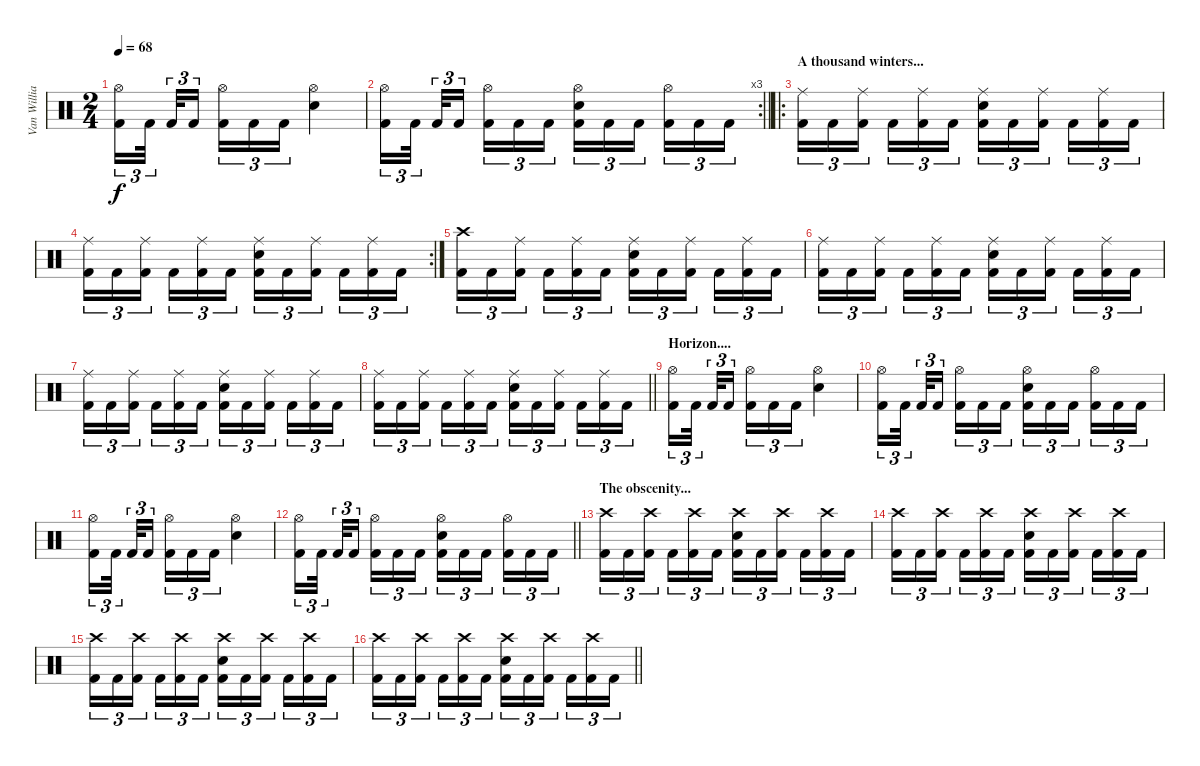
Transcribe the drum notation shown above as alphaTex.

\track ("Van Williams" "Van Willia") {instrument percussion}
\staff
\articulation defaults
\ts (2 4)
\tempo 68
\clef neutral
\ks c
("Hi-Hat (open)" "Kick (hit) 2").16{tu (3 2) dy f} "Kick (hit) 2".32{tu (3 2) beam splitsecondary} "Kick (hit) 2".32{tu (3 2)} "Kick (hit) 2".16{tu (3 2) beam splitsecondary} ("Hi-Hat (open)" "Kick (hit) 2").16{tu (3 2)} "Kick (hit) 2".16{tu (3 2)} "Kick (hit) 2".16{tu (3 2)} ("Hi-Hat (open)" "Electric Snare (hit)").4 |
\rc 3
\barLineRight lightlight
("Hi-Hat (open)" "Kick (hit) 2").16{tu (3 2)} "Kick (hit) 2".32{tu (3 2) beam splitsecondary} "Kick (hit) 2".32{tu (3 2)} "Kick (hit) 2".16{tu (3 2) beam splitsecondary} ("Hi-Hat (open)" "Kick (hit) 2").16{tu (3 2)} "Kick (hit) 2".16{tu (3 2)} "Kick (hit) 2".16{tu (3 2)} ("Hi-Hat (open)" "Electric Snare (hit)" "Kick (hit) 2").16{tu (3 2)} "Kick (hit) 2".16{tu (3 2)} "Kick (hit) 2".16{tu (3 2) beam splitsecondary} ("Hi-Hat (open)" "Kick (hit) 2").16{tu (3 2)} "Kick (hit) 2".16{tu (3 2)} "Kick (hit) 2".16{tu (3 2)} |
\ro
\section ("" "A thousand winters...")
("Ride (middle)" "Kick (hit) 2").16{tu (3 2)} "Kick (hit) 2".16{tu (3 2)} ("Ride (middle)" "Kick (hit) 2").16{tu (3 2) beam splitsecondary} "Kick (hit) 2".16{tu (3 2)} ("Ride (middle)" "Kick (hit) 2").16{tu (3 2)} "Kick (hit) 2".16{tu (3 2)} ("Ride (middle)" "Electric Snare (hit)" "Kick (hit) 2").16{tu (3 2)} "Kick (hit) 2".16{tu (3 2)} ("Ride (middle)" "Kick (hit) 2").16{tu (3 2) beam splitsecondary} "Kick (hit) 2".16{tu (3 2)} ("Ride (middle)" "Kick (hit) 2").16{tu (3 2)} "Kick (hit) 2".16{tu (3 2)} |
\rc 2
("Ride (middle)" "Kick (hit) 2").16{tu (3 2)} "Kick (hit) 2".16{tu (3 2)} ("Ride (middle)" "Kick (hit) 2").16{tu (3 2) beam splitsecondary} "Kick (hit) 2".16{tu (3 2)} ("Ride (middle)" "Kick (hit) 2").16{tu (3 2)} "Kick (hit) 2".16{tu (3 2)} ("Ride (middle)" "Electric Snare (hit)" "Kick (hit) 2").16{tu (3 2)} "Kick (hit) 2".16{tu (3 2)} ("Ride (middle)" "Kick (hit) 2").16{tu (3 2) beam splitsecondary} "Kick (hit) 2".16{tu (3 2)} ("Ride (middle)" "Kick (hit) 2").16{tu (3 2)} "Kick (hit) 2".16{tu (3 2)} |
("Crash high (hit)" "Kick (hit) 2").16{tu (3 2)} "Kick (hit) 2".16{tu (3 2)} ("Ride (middle)" "Kick (hit) 2").16{tu (3 2) beam splitsecondary} "Kick (hit) 2".16{tu (3 2)} ("Ride (middle)" "Kick (hit) 2").16{tu (3 2)} "Kick (hit) 2".16{tu (3 2)} ("Ride (middle)" "Electric Snare (hit)" "Kick (hit) 2").16{tu (3 2)} "Kick (hit) 2".16{tu (3 2)} ("Ride (middle)" "Kick (hit) 2").16{tu (3 2) beam splitsecondary} "Kick (hit) 2".16{tu (3 2)} ("Ride (middle)" "Kick (hit) 2").16{tu (3 2)} "Kick (hit) 2".16{tu (3 2)} |
("Ride (middle)" "Kick (hit) 2").16{tu (3 2)} "Kick (hit) 2".16{tu (3 2)} ("Ride (middle)" "Kick (hit) 2").16{tu (3 2) beam splitsecondary} "Kick (hit) 2".16{tu (3 2)} ("Ride (middle)" "Kick (hit) 2").16{tu (3 2)} "Kick (hit) 2".16{tu (3 2)} ("Ride (middle)" "Electric Snare (hit)" "Kick (hit) 2").16{tu (3 2)} "Kick (hit) 2".16{tu (3 2)} ("Ride (middle)" "Kick (hit) 2").16{tu (3 2) beam splitsecondary} "Kick (hit) 2".16{tu (3 2)} ("Ride (middle)" "Kick (hit) 2").16{tu (3 2)} "Kick (hit) 2".16{tu (3 2)} |
("Ride (middle)" "Kick (hit) 2").16{tu (3 2)} "Kick (hit) 2".16{tu (3 2)} ("Ride (middle)" "Kick (hit) 2").16{tu (3 2) beam splitsecondary} "Kick (hit) 2".16{tu (3 2)} ("Ride (middle)" "Kick (hit) 2").16{tu (3 2)} "Kick (hit) 2".16{tu (3 2)} ("Ride (middle)" "Electric Snare (hit)" "Kick (hit) 2").16{tu (3 2)} "Kick (hit) 2".16{tu (3 2)} ("Ride (middle)" "Kick (hit) 2").16{tu (3 2) beam splitsecondary} "Kick (hit) 2".16{tu (3 2)} ("Ride (middle)" "Kick (hit) 2").16{tu (3 2)} "Kick (hit) 2".16{tu (3 2)} |
\barLineRight lightlight
("Ride (middle)" "Kick (hit) 2").16{tu (3 2)} "Kick (hit) 2".16{tu (3 2)} ("Ride (middle)" "Kick (hit) 2").16{tu (3 2) beam splitsecondary} "Kick (hit) 2".16{tu (3 2)} ("Ride (middle)" "Kick (hit) 2").16{tu (3 2)} "Kick (hit) 2".16{tu (3 2)} ("Ride (middle)" "Electric Snare (hit)" "Kick (hit) 2").16{tu (3 2)} "Kick (hit) 2".16{tu (3 2)} ("Ride (middle)" "Kick (hit) 2").16{tu (3 2) beam splitsecondary} "Kick (hit) 2".16{tu (3 2)} ("Ride (middle)" "Kick (hit) 2").16{tu (3 2)} "Kick (hit) 2".16{tu (3 2)} |
\section ("" "Horizon....")
("Hi-Hat (open)" "Kick (hit) 2").16{tu (3 2)} "Kick (hit) 2".32{tu (3 2) beam splitsecondary} "Kick (hit) 2".32{tu (3 2)} "Kick (hit) 2".16{tu (3 2) beam splitsecondary} ("Hi-Hat (open)" "Kick (hit) 2").16{tu (3 2)} "Kick (hit) 2".16{tu (3 2)} "Kick (hit) 2".16{tu (3 2)} ("Hi-Hat (open)" "Electric Snare (hit)").4 |
("Hi-Hat (open)" "Kick (hit) 2").16{tu (3 2)} "Kick (hit) 2".32{tu (3 2) beam splitsecondary} "Kick (hit) 2".32{tu (3 2)} "Kick (hit) 2".16{tu (3 2) beam splitsecondary} ("Hi-Hat (open)" "Kick (hit) 2").16{tu (3 2)} "Kick (hit) 2".16{tu (3 2)} "Kick (hit) 2".16{tu (3 2)} ("Hi-Hat (open)" "Electric Snare (hit)" "Kick (hit) 2").16{tu (3 2)} "Kick (hit) 2".16{tu (3 2)} "Kick (hit) 2".16{tu (3 2) beam splitsecondary} ("Hi-Hat (open)" "Kick (hit) 2").16{tu (3 2)} "Kick (hit) 2".16{tu (3 2)} "Kick (hit) 2".16{tu (3 2)} |
("Hi-Hat (open)" "Kick (hit) 2").16{tu (3 2)} "Kick (hit) 2".32{tu (3 2) beam splitsecondary} "Kick (hit) 2".32{tu (3 2)} "Kick (hit) 2".16{tu (3 2) beam splitsecondary} ("Hi-Hat (open)" "Kick (hit) 2").16{tu (3 2)} "Kick (hit) 2".16{tu (3 2)} "Kick (hit) 2".16{tu (3 2)} ("Hi-Hat (open)" "Electric Snare (hit)").4 |
\barLineRight lightlight
("Hi-Hat (open)" "Kick (hit) 2").16{tu (3 2)} "Kick (hit) 2".32{tu (3 2) beam splitsecondary} "Kick (hit) 2".32{tu (3 2)} "Kick (hit) 2".16{tu (3 2) beam splitsecondary} ("Hi-Hat (open)" "Kick (hit) 2").16{tu (3 2)} "Kick (hit) 2".16{tu (3 2)} "Kick (hit) 2".16{tu (3 2)} ("Hi-Hat (open)" "Electric Snare (hit)" "Kick (hit) 2").16{tu (3 2)} "Kick (hit) 2".16{tu (3 2)} "Kick (hit) 2".16{tu (3 2) beam splitsecondary} ("Hi-Hat (open)" "Kick (hit) 2").16{tu (3 2)} "Kick (hit) 2".16{tu (3 2)} "Kick (hit) 2".16{tu (3 2)} |
\section ("" "The obscenity...")
("Crash high (hit)" "Kick (hit) 2").16{tu (3 2)} "Kick (hit) 2".16{tu (3 2)} ("Crash high (hit)" "Kick (hit) 2").16{tu (3 2) beam splitsecondary} "Kick (hit) 2".16{tu (3 2)} ("Crash high (hit)" "Kick (hit) 2").16{tu (3 2)} "Kick (hit) 2".16{tu (3 2)} ("Crash high (hit)" "Electric Snare (hit)" "Kick (hit) 2").16{tu (3 2)} "Kick (hit) 2".16{tu (3 2)} ("Crash high (hit)" "Kick (hit) 2").16{tu (3 2) beam splitsecondary} "Kick (hit) 2".16{tu (3 2)} ("Crash high (hit)" "Kick (hit) 2").16{tu (3 2)} "Kick (hit) 2".16{tu (3 2)} |
("Crash high (hit)" "Kick (hit) 2").16{tu (3 2)} "Kick (hit) 2".16{tu (3 2)} ("Crash high (hit)" "Kick (hit) 2").16{tu (3 2) beam splitsecondary} "Kick (hit) 2".16{tu (3 2)} ("Crash high (hit)" "Kick (hit) 2").16{tu (3 2)} "Kick (hit) 2".16{tu (3 2)} ("Crash high (hit)" "Electric Snare (hit)" "Kick (hit) 2").16{tu (3 2)} "Kick (hit) 2".16{tu (3 2)} ("Crash high (hit)" "Kick (hit) 2").16{tu (3 2) beam splitsecondary} "Kick (hit) 2".16{tu (3 2)} ("Crash high (hit)" "Kick (hit) 2").16{tu (3 2)} "Kick (hit) 2".16{tu (3 2)} |
("Crash high (hit)" "Kick (hit) 2").16{tu (3 2)} "Kick (hit) 2".16{tu (3 2)} ("Crash high (hit)" "Kick (hit) 2").16{tu (3 2) beam splitsecondary} "Kick (hit) 2".16{tu (3 2)} ("Crash high (hit)" "Kick (hit) 2").16{tu (3 2)} "Kick (hit) 2".16{tu (3 2)} ("Crash high (hit)" "Electric Snare (hit)" "Kick (hit) 2").16{tu (3 2)} "Kick (hit) 2".16{tu (3 2)} ("Crash high (hit)" "Kick (hit) 2").16{tu (3 2) beam splitsecondary} "Kick (hit) 2".16{tu (3 2)} ("Crash high (hit)" "Kick (hit) 2").16{tu (3 2)} "Kick (hit) 2".16{tu (3 2)} |
\barLineRight lightlight
("Crash high (hit)" "Kick (hit) 2").16{tu (3 2)} "Kick (hit) 2".16{tu (3 2)} ("Crash high (hit)" "Kick (hit) 2").16{tu (3 2) beam splitsecondary} "Kick (hit) 2".16{tu (3 2)} ("Crash high (hit)" "Kick (hit) 2").16{tu (3 2)} "Kick (hit) 2".16{tu (3 2)} ("Crash high (hit)" "Electric Snare (hit)" "Kick (hit) 2").16{tu (3 2)} "Kick (hit) 2".16{tu (3 2)} ("Crash high (hit)" "Kick (hit) 2").16{tu (3 2) beam splitsecondary} "Kick (hit) 2".16{tu (3 2)} ("Crash high (hit)" "Kick (hit) 2").16{tu (3 2)} "Kick (hit) 2".16{tu (3 2)}
